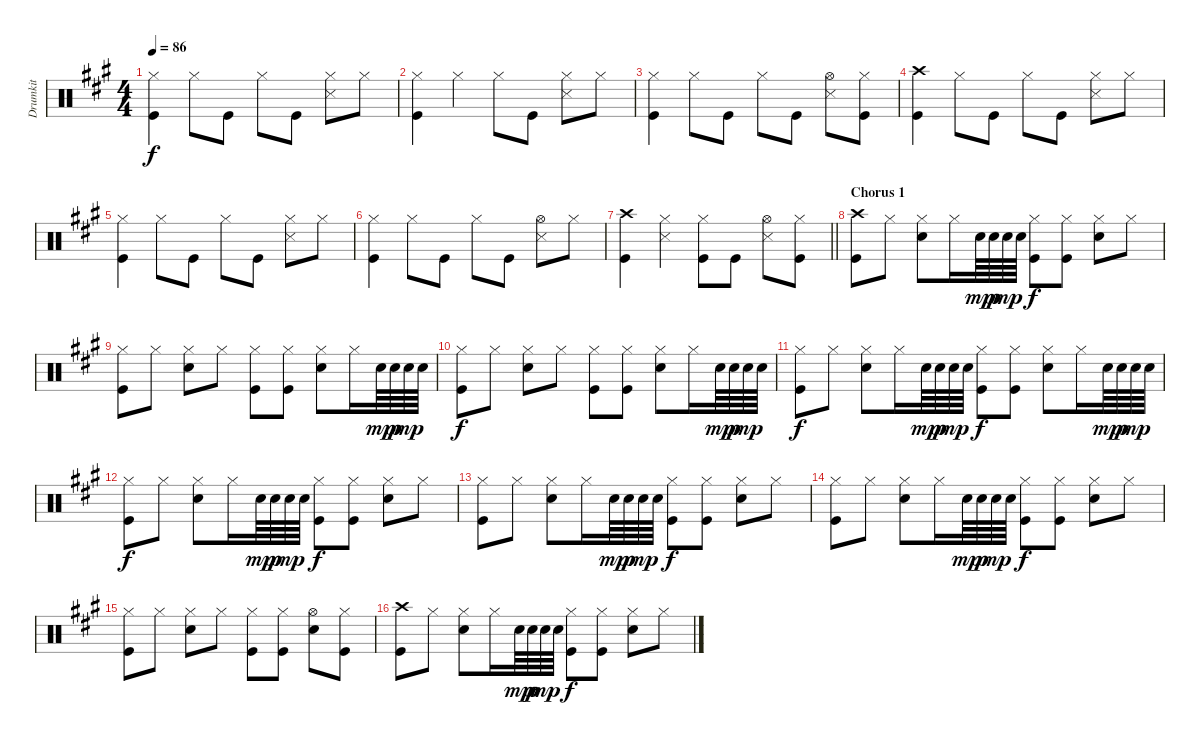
\track ("Drumkit" "Drumkit") {instrument percussion}
\staff {score}
\articulation defaults
\ts (4 4)
\tempo 86
\clef neutral
\ks a
("Kick (hit)" "Hi-Hat (closed)").4{dy f} "Hi-Hat (closed)".8 "Kick (hit)".8 "Hi-Hat (closed)".8 "Kick (hit)".8 ("Hi-Hat (closed)" "Snare (side stick) 3").8 "Hi-Hat (closed)".8 |
("Kick (hit)" "Hi-Hat (closed)").4 "Hi-Hat (closed)".4 "Hi-Hat (closed)".8 "Kick (hit)".8 ("Hi-Hat (closed)" "Snare (side stick) 3").8 "Hi-Hat (closed)".8 |
("Kick (hit)" "Hi-Hat (closed)").4 "Hi-Hat (closed)".8 "Kick (hit)".8 "Hi-Hat (closed)".8 "Kick (hit)".8 ("Hi-Hat (open)" "Snare (side stick) 3").8 ("Hi-Hat (closed)" "Kick (hit)").8 |
("Kick (hit)" "Crash high (hit)").4 "Hi-Hat (closed)".8 "Kick (hit)".8 "Hi-Hat (closed)".8 "Kick (hit)".8 ("Hi-Hat (closed)" "Snare (side stick) 3").8 "Hi-Hat (closed)".8 |
("Kick (hit)" "Hi-Hat (closed)").4 "Hi-Hat (closed)".8 "Kick (hit)".8 "Hi-Hat (closed)".8 "Kick (hit)".8 ("Hi-Hat (closed)" "Snare (side stick) 3").8 "Hi-Hat (closed)".8 |
("Kick (hit)" "Hi-Hat (closed)").4 "Hi-Hat (closed)".8 "Kick (hit)".8 "Hi-Hat (closed)".8 "Kick (hit)".8 ("Hi-Hat (open)" "Snare (side stick) 3").8 "Hi-Hat (closed)".8 |
\barLineRight lightlight
("Kick (hit)" "Crash high (hit)").4 ("Snare (side stick) 3" "Hi-Hat (closed)").4 ("Kick (hit)" "Hi-Hat (closed)").8 "Kick (hit)".8 ("Snare (side stick) 3" "Hi-Hat (open)").8 ("Kick (hit)" "Hi-Hat (closed)").8 |
\section ("" "Chorus 1")
("Kick (hit)" "Crash high (hit)").8 "Hi-Hat (closed)".8 ("Hi-Hat (closed)" "Snare (hit) 2").8 "Hi-Hat (closed)".16 "Snare (hit) 2".64{dy mp} "Snare (hit) 2".64{dy p} "Snare (hit) 2".64{dy mp} "Snare (hit) 2".64 ("Kick (hit)" "Hi-Hat (closed)").8{dy f} ("Kick (hit)" "Hi-Hat (closed)").8 ("Snare (hit) 2" "Hi-Hat (closed)").8 "Hi-Hat (closed)".8 |
("Kick (hit)" "Hi-Hat (closed)").8 "Hi-Hat (closed)".8 ("Hi-Hat (closed)" "Snare (hit) 2").8 "Hi-Hat (closed)".8 ("Kick (hit)" "Hi-Hat (closed)").8 ("Kick (hit)" "Hi-Hat (closed)").8 ("Snare (hit) 2" "Hi-Hat (closed)").8 "Hi-Hat (closed)".16 "Snare (hit) 2".64{dy mp} "Snare (hit) 2".64{dy p} "Snare (hit) 2".64{dy mp} "Snare (hit) 2".64 |
("Kick (hit)" "Hi-Hat (closed)").8{dy f} "Hi-Hat (closed)".8 ("Hi-Hat (closed)" "Snare (hit) 2").8 "Hi-Hat (closed)".8 ("Kick (hit)" "Hi-Hat (closed)").8 ("Kick (hit)" "Hi-Hat (closed)").8 ("Snare (hit) 2" "Hi-Hat (closed)").8 "Hi-Hat (closed)".16 "Snare (hit) 2".64{dy mp} "Snare (hit) 2".64{dy p} "Snare (hit) 2".64{dy mp} "Snare (hit) 2".64 |
("Kick (hit)" "Hi-Hat (closed)").8{dy f} "Hi-Hat (closed)".8 ("Hi-Hat (closed)" "Snare (hit) 2").8 "Hi-Hat (closed)".16 "Snare (hit) 2".64{dy mp} "Snare (hit) 2".64{dy p} "Snare (hit) 2".64{dy mp} "Snare (hit) 2".64 ("Kick (hit)" "Hi-Hat (closed)").8{dy f} ("Kick (hit)" "Hi-Hat (closed)").8 ("Snare (hit) 2" "Hi-Hat (closed)").8 "Hi-Hat (closed)".16 "Snare (hit) 2".64{dy mp} "Snare (hit) 2".64{dy p} "Snare (hit) 2".64{dy mp} "Snare (hit) 2".64 |
("Kick (hit)" "Hi-Hat (closed)").8{dy f} "Hi-Hat (closed)".8 ("Hi-Hat (closed)" "Snare (hit) 2").8 "Hi-Hat (closed)".16 "Snare (hit) 2".64{dy mp} "Snare (hit) 2".64{dy p} "Snare (hit) 2".64{dy mp} "Snare (hit) 2".64 ("Kick (hit)" "Hi-Hat (closed)").8{dy f} ("Kick (hit)" "Hi-Hat (closed)").8 ("Snare (hit) 2" "Hi-Hat (closed)").8 "Hi-Hat (closed)".8 |
("Kick (hit)" "Hi-Hat (closed)").8 "Hi-Hat (closed)".8 ("Hi-Hat (closed)" "Snare (hit) 2").8 "Hi-Hat (closed)".16 "Snare (hit) 2".64{dy mp} "Snare (hit) 2".64{dy p} "Snare (hit) 2".64{dy mp} "Snare (hit) 2".64 ("Kick (hit)" "Hi-Hat (closed)").8{dy f} ("Kick (hit)" "Hi-Hat (closed)").8 ("Snare (hit) 2" "Hi-Hat (closed)").8 "Hi-Hat (closed)".8 |
("Kick (hit)" "Hi-Hat (closed)").8 "Hi-Hat (closed)".8 ("Hi-Hat (closed)" "Snare (hit) 2").8 "Hi-Hat (closed)".16 "Snare (hit) 2".64{dy mp} "Snare (hit) 2".64{dy p} "Snare (hit) 2".64{dy mp} "Snare (hit) 2".64 ("Kick (hit)" "Hi-Hat (closed)").8{dy f} ("Kick (hit)" "Hi-Hat (closed)").8 ("Snare (hit) 2" "Hi-Hat (closed)").8 "Hi-Hat (closed)".8 |
("Kick (hit)" "Hi-Hat (closed)").8 "Hi-Hat (closed)".8 ("Hi-Hat (closed)" "Snare (hit) 2").8 "Hi-Hat (closed)".8 ("Kick (hit)" "Hi-Hat (closed)").8 ("Kick (hit)" "Hi-Hat (closed)").8 ("Snare (hit) 2" "Hi-Hat (open)").8 ("Hi-Hat (closed)" "Kick (hit)").8 |
("Kick (hit)" "Crash high (hit)").8 "Hi-Hat (closed)".8 ("Hi-Hat (closed)" "Snare (hit) 2").8 "Hi-Hat (closed)".16 "Snare (hit) 2".64{dy mp} "Snare (hit) 2".64{dy p} "Snare (hit) 2".64{dy mp} "Snare (hit) 2".64 ("Kick (hit)" "Hi-Hat (closed)").8{dy f} ("Kick (hit)" "Hi-Hat (closed)").8 ("Snare (hit) 2" "Hi-Hat (closed)").8 "Hi-Hat (closed)".8
